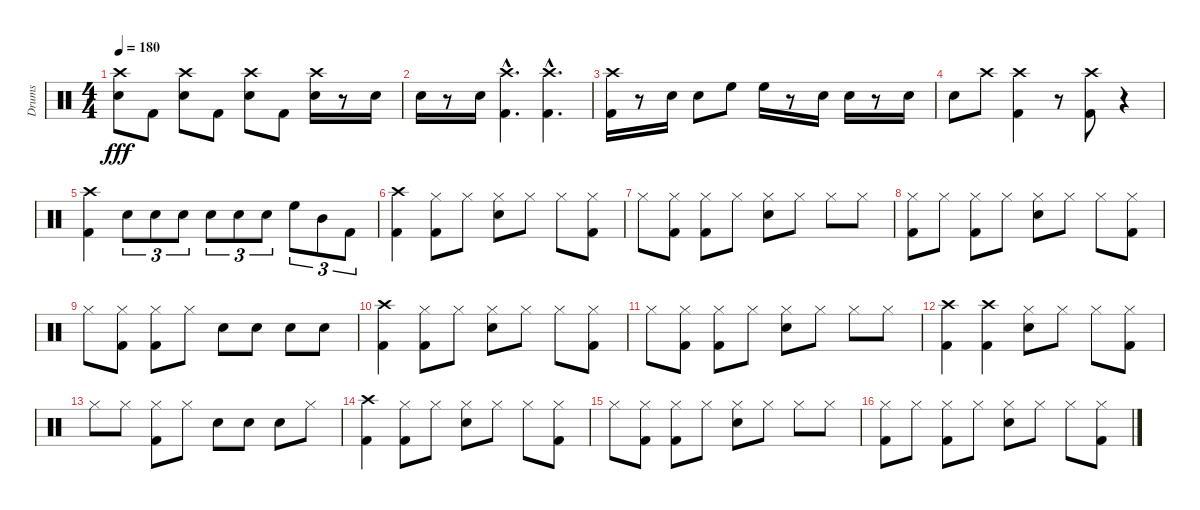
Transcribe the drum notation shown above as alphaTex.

\track ("Drums" "Drums") {instrument percussion}
\staff {score}
\articulation defaults
\ts (4 4)
\tempo 180
\clef neutral
\ks c
("Snare (hit) 2" "Crash high (hit)").8{dy fff} "Kick (hit) 2".8 ("Snare (hit) 2" "Crash high (hit)").8 "Kick (hit) 2".8 ("Snare (hit) 2" "Crash high (hit)").8 "Kick (hit) 2".8 ("Snare (hit) 2" "Crash high (hit)").16 r.8 "Snare (hit) 2".16 |
"Snare (hit) 2".16 r.8 "Snare (hit) 2".16 ("Crash high (hit)"{hac} "Kick (hit) 2"{hac}).4{d} ("Kick (hit) 2"{hac} "Crash high (hit)"{hac}).4{d} |
("Crash high (hit)" "Kick (hit) 2").16 r.8 "Snare (hit) 2".16 "Snare (hit) 2".8 "High Floor Tom (hit)".8 "High Floor Tom (hit)".16 r.8 "Snare (hit) 2".16 "Snare (hit) 2".16 r.8 "Snare (hit) 2".16 |
"Snare (hit) 2".8 "Crash high (hit)".8 ("Crash high (hit)" "Kick (hit) 2").4 r.8 ("Crash high (hit)" "Kick (hit) 2").8 r.4 |
("Crash high (hit)" "Kick (hit) 2").4 "Snare (hit) 2".8{tu (3 2)} "Snare (hit) 2".8{tu (3 2)} "Snare (hit) 2".8{tu (3 2)} "Snare (hit) 2".8{tu (3 2)} "Snare (hit) 2".8{tu (3 2)} "Snare (hit) 2".8{tu (3 2)} "High Floor Tom (hit)".8{tu (3 2)} "Mid Tom (hit)".8{tu (3 2)} "Kick (hit) 2".8{tu (3 2)} |
("Crash high (hit)" "Kick (hit) 2").4 ("Hi-Hat (closed)" "Kick (hit) 2").8 "Hi-Hat (closed)".8 ("Snare (hit) 2" "Hi-Hat (closed)").8 "Hi-Hat (closed)".8 "Hi-Hat (closed)".8 ("Kick (hit) 2" "Hi-Hat (closed)").8 |
"Hi-Hat (closed)".8 ("Kick (hit) 2" "Hi-Hat (closed)").8 ("Kick (hit) 2" "Hi-Hat (closed)").8 "Hi-Hat (closed)".8 ("Snare (hit) 2" "Hi-Hat (closed)").8 "Hi-Hat (closed)".8 "Hi-Hat (closed)".8 "Hi-Hat (closed)".8 |
("Hi-Hat (closed)" "Kick (hit) 2").8 "Hi-Hat (closed)".8 ("Hi-Hat (closed)" "Kick (hit) 2").8 "Hi-Hat (closed)".8 ("Snare (hit) 2" "Hi-Hat (closed)").8 "Hi-Hat (closed)".8 "Hi-Hat (closed)".8 ("Kick (hit) 2" "Hi-Hat (closed)").8 |
"Hi-Hat (closed)".8 ("Kick (hit) 2" "Hi-Hat (closed)").8 ("Kick (hit) 2" "Hi-Hat (closed)").8 "Hi-Hat (closed)".8 "Snare (hit) 2".8 "Snare (hit) 2".8 "Snare (hit) 2".8 "Snare (hit) 2".8 |
("Crash high (hit)" "Kick (hit) 2").4 ("Hi-Hat (closed)" "Kick (hit) 2").8 "Hi-Hat (closed)".8 ("Snare (hit) 2" "Hi-Hat (closed)").8 "Hi-Hat (closed)".8 "Hi-Hat (closed)".8 ("Kick (hit) 2" "Hi-Hat (closed)").8 |
"Hi-Hat (closed)".8 ("Kick (hit) 2" "Hi-Hat (closed)").8 ("Kick (hit) 2" "Hi-Hat (closed)").8 "Hi-Hat (closed)".8 ("Snare (hit) 2" "Hi-Hat (closed)").8 "Hi-Hat (closed)".8 "Hi-Hat (closed)".8 "Hi-Hat (closed)".8 |
("Crash high (hit)" "Kick (hit) 2").4 ("Crash high (hit)" "Kick (hit) 2").4 ("Snare (hit) 2" "Hi-Hat (closed)").8 "Hi-Hat (closed)".8 "Hi-Hat (closed)".8 ("Kick (hit) 2" "Hi-Hat (closed)").8 |
"Hi-Hat (closed)".8 "Hi-Hat (closed)".8 ("Kick (hit) 2" "Hi-Hat (closed)").8 "Hi-Hat (closed)".8 "Snare (hit) 2".8 "Snare (hit) 2".8 "Snare (hit) 2".8 "Hi-Hat (closed)".8 |
("Crash high (hit)" "Kick (hit) 2").4 ("Hi-Hat (closed)" "Kick (hit) 2").8 "Hi-Hat (closed)".8 ("Snare (hit) 2" "Hi-Hat (closed)").8 "Hi-Hat (closed)".8 "Hi-Hat (closed)".8 ("Kick (hit) 2" "Hi-Hat (closed)").8 |
"Hi-Hat (closed)".8 ("Kick (hit) 2" "Hi-Hat (closed)").8 ("Kick (hit) 2" "Hi-Hat (closed)").8 "Hi-Hat (closed)".8 ("Snare (hit) 2" "Hi-Hat (closed)").8 "Hi-Hat (closed)".8 "Hi-Hat (closed)".8 "Hi-Hat (closed)".8 |
("Hi-Hat (closed)" "Kick (hit) 2").8 "Hi-Hat (closed)".8 ("Hi-Hat (closed)" "Kick (hit) 2").8 "Hi-Hat (closed)".8 ("Snare (hit) 2" "Hi-Hat (closed)").8 "Hi-Hat (closed)".8 "Hi-Hat (closed)".8 ("Kick (hit) 2" "Hi-Hat (closed)").8
